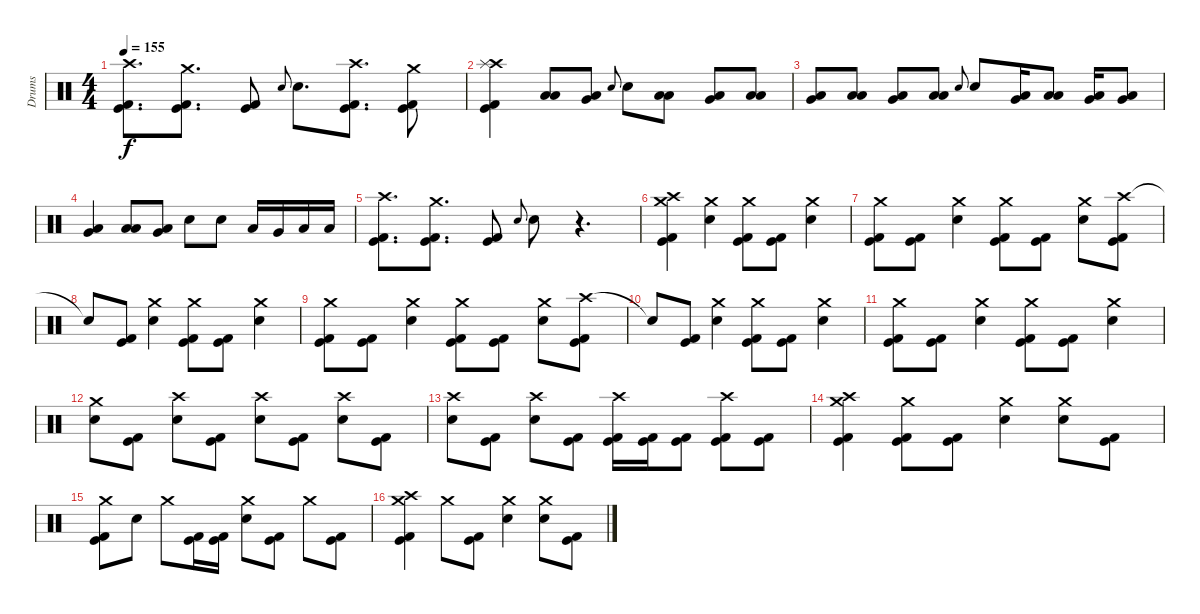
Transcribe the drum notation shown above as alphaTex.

\track ("Drums" "Drums") {instrument percussion}
\staff {score}
\articulation defaults
\ts (4 4)
\tempo 155
\clef neutral
\ks c
("Crash high (hit)" "Kick (hit)" "Kick (hit) 2").8{d dy f} ("Crash medium (hit)" "Kick (hit)" "Kick (hit) 2").8{d} ("Kick (hit)" "Kick (hit) 2").8 "Electric Snare (hit)".8{gr onbeat} "Electric Snare (hit)".8{d} ("Crash high (hit)" "Kick (hit)" "Kick (hit) 2").8{d} ("Crash medium (hit)" "Kick (hit)" "Kick (hit) 2").8 |
("Crash high (hit)" "Splash (hit)" "Kick (hit)" "Kick (hit) 2").4 ("Low Tom (hit)" "Low Floor Tom (hit)").8 ("Low Tom (hit)" "Very Low Tom (hit)").8 "Electric Snare (hit)".8{gr onbeat} "Electric Snare (hit)".8 ("Low Tom (hit)" "Low Floor Tom (hit)").8 ("Low Tom (hit)" "Very Low Tom (hit)").8 ("Low Tom (hit)" "Low Floor Tom (hit)").8 |
("Low Tom (hit)" "Very Low Tom (hit)").8 ("Low Tom (hit)" "Low Floor Tom (hit)").8 ("Low Tom (hit)" "Very Low Tom (hit)").8 ("Low Tom (hit)" "Low Floor Tom (hit)").8 "Electric Snare (hit)".8{gr onbeat} "Electric Snare (hit)".8 ("Low Tom (hit)" "Very Low Tom (hit)").16 ("Low Tom (hit)" "Low Floor Tom (hit)").8 ("Low Tom (hit)" "Very Low Tom (hit)").16 ("Low Tom (hit)" "Very Low Tom (hit)").8 |
("Low Tom (hit)" "Very Low Tom (hit)").4 ("Low Tom (hit)" "Low Floor Tom (hit)").8 ("Low Tom (hit)" "Very Low Tom (hit)").8 "Electric Snare (hit)".8 "Electric Snare (hit)".8 "Low Tom (hit)".16 "Very Low Tom (hit)".16 "Low Tom (hit)".16 "Low Floor Tom (hit)".16 |
("Crash high (hit)" "Kick (hit)" "Kick (hit) 2").8{d} ("Crash medium (hit)" "Kick (hit)" "Kick (hit) 2").8{d} ("Kick (hit)" "Kick (hit) 2").8 "Electric Snare (hit)".8{gr onbeat} "Electric Snare (hit)".8 r.4{d} |
("Crash medium (hit)" "Crash high (hit)" "Kick (hit)" "Kick (hit) 2").4 ("Crash medium (hit)" "Electric Snare (hit)").4 ("Crash medium (hit)" "Kick (hit)" "Kick (hit) 2").8 ("Kick (hit)" "Kick (hit) 2").8 ("Crash medium (hit)" "Electric Snare (hit)").4 |
("Crash medium (hit)" "Kick (hit)" "Kick (hit) 2").8 ("Kick (hit)" "Kick (hit) 2").8 ("Crash medium (hit)" "Electric Snare (hit)").4 ("Crash medium (hit)" "Kick (hit)" "Kick (hit) 2").8 ("Kick (hit)" "Kick (hit) 2").8 ("Crash medium (hit)" "Electric Snare (hit)").8 ("Crash high (hit)" "Kick (hit)" "Kick (hit) 2").8 |
"Snare (hit)"{t}.8 ("Kick (hit)" "Kick (hit) 2").8 ("Crash medium (hit)" "Electric Snare (hit)").4 ("Crash medium (hit)" "Kick (hit)" "Kick (hit) 2").8 ("Kick (hit)" "Kick (hit) 2").8 ("Crash medium (hit)" "Electric Snare (hit)").4 |
("Crash medium (hit)" "Kick (hit)" "Kick (hit) 2").8 ("Kick (hit)" "Kick (hit) 2").8 ("Crash medium (hit)" "Electric Snare (hit)").4 ("Crash medium (hit)" "Kick (hit)" "Kick (hit) 2").8 ("Kick (hit)" "Kick (hit) 2").8 ("Crash medium (hit)" "Electric Snare (hit)").8 ("Crash high (hit)" "Kick (hit)" "Kick (hit) 2").8 |
"Snare (hit)"{t}.8 ("Kick (hit)" "Kick (hit) 2").8 ("Crash medium (hit)" "Electric Snare (hit)").4 ("Crash medium (hit)" "Kick (hit)" "Kick (hit) 2").8 ("Kick (hit)" "Kick (hit) 2").8 ("Crash medium (hit)" "Electric Snare (hit)").4 |
("Crash medium (hit)" "Kick (hit)" "Kick (hit) 2").8 ("Kick (hit)" "Kick (hit) 2").8 ("Crash medium (hit)" "Electric Snare (hit)").4 ("Crash medium (hit)" "Kick (hit)" "Kick (hit) 2").8 ("Kick (hit)" "Kick (hit) 2").8 ("Crash medium (hit)" "Electric Snare (hit)").4 |
("Crash medium (hit)" "Electric Snare (hit)").8 ("Kick (hit)" "Kick (hit) 2").8 ("Crash high (hit)" "Electric Snare (hit)").8 ("Kick (hit)" "Kick (hit) 2").8 ("Crash high (hit)" "Electric Snare (hit)").8 ("Kick (hit)" "Kick (hit) 2").8 ("Crash high (hit)" "Electric Snare (hit)").8 ("Kick (hit)" "Kick (hit) 2").8 |
("Crash high (hit)" "Electric Snare (hit)").8 ("Kick (hit)" "Kick (hit) 2").8 ("Crash high (hit)" "Electric Snare (hit)").8 ("Kick (hit)" "Kick (hit) 2").8 ("Crash high (hit)" "Kick (hit)" "Kick (hit) 2").16 ("Kick (hit)" "Kick (hit) 2").16 ("Kick (hit)" "Kick (hit) 2").8 ("Crash high (hit)" "Kick (hit)" "Kick (hit) 2").8 ("Kick (hit)" "Kick (hit) 2").8 |
("Crash medium (hit)" "Crash high (hit)" "Kick (hit)" "Kick (hit) 2").4 ("Crash medium (hit)" "Kick (hit)" "Kick (hit) 2").8 ("Kick (hit)" "Kick (hit) 2").8 ("Crash medium (hit)" "Electric Snare (hit)").4 ("Crash medium (hit)" "Electric Snare (hit)").8 ("Kick (hit)" "Kick (hit) 2").8 |
("Crash medium (hit)" "Kick (hit)" "Kick (hit) 2").8 "Electric Snare (hit)".8 "Crash medium (hit)".8 ("Kick (hit)" "Kick (hit) 2").16 ("Kick (hit)" "Kick (hit) 2").16 ("Crash medium (hit)" "Electric Snare (hit)").8 ("Kick (hit)" "Kick (hit) 2").8 "Crash medium (hit)".8 ("Kick (hit)" "Kick (hit) 2").8 |
("Crash medium (hit)" "Crash high (hit)" "Kick (hit)" "Kick (hit) 2").4 "Crash medium (hit)".8 ("Kick (hit)" "Kick (hit) 2").8 ("Crash medium (hit)" "Electric Snare (hit)").4 ("Crash medium (hit)" "Electric Snare (hit)").8 ("Kick (hit)" "Kick (hit) 2").8
